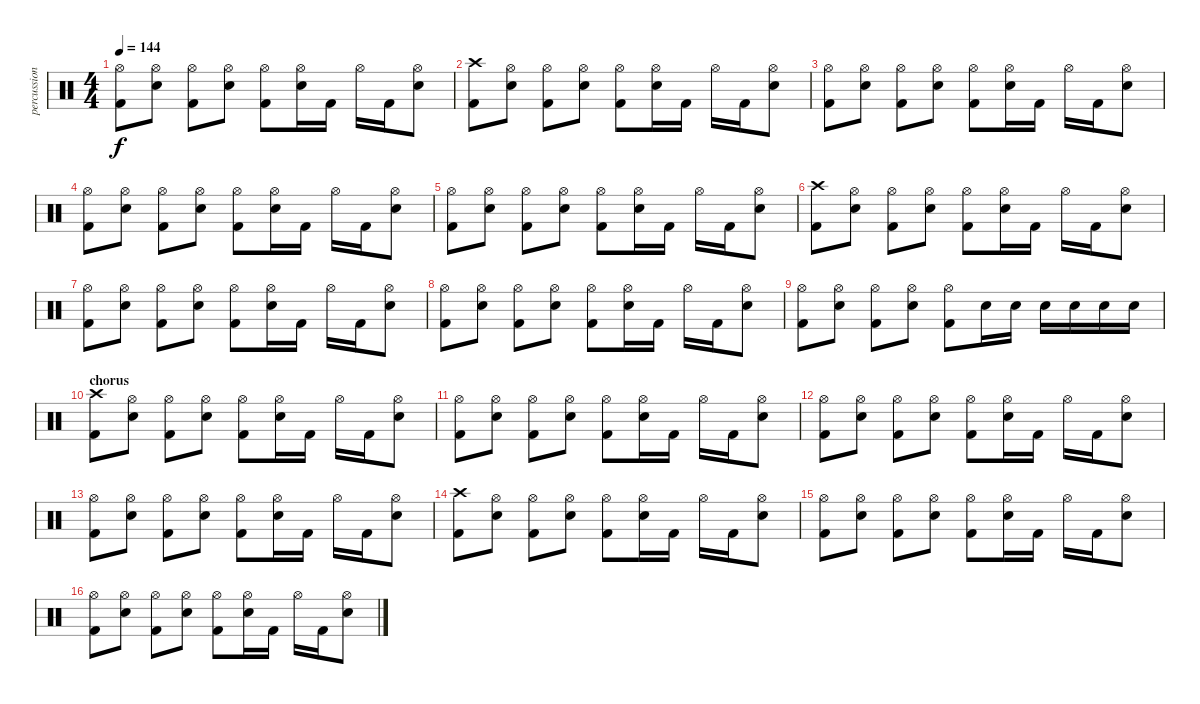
\track ("percussion" "percussion") {instrument percussion}
\staff {score}
\articulation defaults
\ts (4 4)
\tempo 144
\clef neutral
\ks c
("Hi-Hat (open)" "Kick (hit) 2").8{dy f} ("Hi-Hat (open)" "Electric Snare (hit)").8 ("Hi-Hat (open)" "Kick (hit) 2").8 ("Hi-Hat (open)" "Electric Snare (hit)").8 ("Hi-Hat (open)" "Kick (hit) 2").8 ("Hi-Hat (open)" "Electric Snare (hit)").16 "Kick (hit) 2".16 "Hi-Hat (open)".16 "Kick (hit) 2".16 ("Hi-Hat (open)" "Electric Snare (hit)").8 |
("Crash high (hit)" "Kick (hit) 2").8 ("Hi-Hat (open)" "Electric Snare (hit)").8 ("Hi-Hat (open)" "Kick (hit) 2").8 ("Hi-Hat (open)" "Electric Snare (hit)").8 ("Hi-Hat (open)" "Kick (hit) 2").8 ("Hi-Hat (open)" "Electric Snare (hit)").16 "Kick (hit) 2".16 "Hi-Hat (open)".16 "Kick (hit) 2".16 ("Hi-Hat (open)" "Electric Snare (hit)").8 |
("Hi-Hat (open)" "Kick (hit) 2").8 ("Hi-Hat (open)" "Electric Snare (hit)").8 ("Hi-Hat (open)" "Kick (hit) 2").8 ("Hi-Hat (open)" "Electric Snare (hit)").8 ("Hi-Hat (open)" "Kick (hit) 2").8 ("Hi-Hat (open)" "Electric Snare (hit)").16 "Kick (hit) 2".16 "Hi-Hat (open)".16 "Kick (hit) 2".16 ("Hi-Hat (open)" "Electric Snare (hit)").8 |
("Hi-Hat (open)" "Kick (hit) 2").8 ("Hi-Hat (open)" "Electric Snare (hit)").8 ("Hi-Hat (open)" "Kick (hit) 2").8 ("Hi-Hat (open)" "Electric Snare (hit)").8 ("Hi-Hat (open)" "Kick (hit) 2").8 ("Hi-Hat (open)" "Electric Snare (hit)").16 "Kick (hit) 2".16 "Hi-Hat (open)".16 "Kick (hit) 2".16 ("Hi-Hat (open)" "Electric Snare (hit)").8 |
("Hi-Hat (open)" "Kick (hit) 2").8 ("Hi-Hat (open)" "Electric Snare (hit)").8 ("Hi-Hat (open)" "Kick (hit) 2").8 ("Hi-Hat (open)" "Electric Snare (hit)").8 ("Hi-Hat (open)" "Kick (hit) 2").8 ("Hi-Hat (open)" "Electric Snare (hit)").16 "Kick (hit) 2".16 "Hi-Hat (open)".16 "Kick (hit) 2".16 ("Hi-Hat (open)" "Electric Snare (hit)").8 |
("Crash high (hit)" "Kick (hit) 2").8 ("Hi-Hat (open)" "Electric Snare (hit)").8 ("Hi-Hat (open)" "Kick (hit) 2").8 ("Hi-Hat (open)" "Electric Snare (hit)").8 ("Hi-Hat (open)" "Kick (hit) 2").8 ("Hi-Hat (open)" "Electric Snare (hit)").16 "Kick (hit) 2".16 "Hi-Hat (open)".16 "Kick (hit) 2".16 ("Hi-Hat (open)" "Electric Snare (hit)").8 |
("Hi-Hat (open)" "Kick (hit) 2").8 ("Hi-Hat (open)" "Electric Snare (hit)").8 ("Hi-Hat (open)" "Kick (hit) 2").8 ("Hi-Hat (open)" "Electric Snare (hit)").8 ("Hi-Hat (open)" "Kick (hit) 2").8 ("Hi-Hat (open)" "Electric Snare (hit)").16 "Kick (hit) 2".16 "Hi-Hat (open)".16 "Kick (hit) 2".16 ("Hi-Hat (open)" "Electric Snare (hit)").8 |
("Hi-Hat (open)" "Kick (hit) 2").8 ("Hi-Hat (open)" "Electric Snare (hit)").8 ("Hi-Hat (open)" "Kick (hit) 2").8 ("Hi-Hat (open)" "Electric Snare (hit)").8 ("Hi-Hat (open)" "Kick (hit) 2").8 ("Hi-Hat (open)" "Electric Snare (hit)").16 "Kick (hit) 2".16 "Hi-Hat (open)".16 "Kick (hit) 2".16 ("Hi-Hat (open)" "Electric Snare (hit)").8 |
("Hi-Hat (open)" "Kick (hit) 2").8 ("Hi-Hat (open)" "Electric Snare (hit)").8 ("Hi-Hat (open)" "Kick (hit) 2").8 ("Hi-Hat (open)" "Electric Snare (hit)").8 ("Hi-Hat (open)" "Kick (hit) 2").8 "Electric Snare (hit)".16 "Electric Snare (hit)".16 "Electric Snare (hit)".16 "Electric Snare (hit)".16 "Electric Snare (hit)".16 "Electric Snare (hit)".16 |
\section ("" "chorus")
("Crash high (hit)" "Kick (hit) 2").8 ("Hi-Hat (open)" "Electric Snare (hit)").8 ("Hi-Hat (open)" "Kick (hit) 2").8 ("Hi-Hat (open)" "Electric Snare (hit)").8 ("Hi-Hat (open)" "Kick (hit) 2").8 ("Hi-Hat (open)" "Electric Snare (hit)").16 "Kick (hit) 2".16 "Hi-Hat (open)".16 "Kick (hit) 2".16 ("Hi-Hat (open)" "Electric Snare (hit)").8 |
("Hi-Hat (open)" "Kick (hit) 2").8 ("Hi-Hat (open)" "Electric Snare (hit)").8 ("Hi-Hat (open)" "Kick (hit) 2").8 ("Hi-Hat (open)" "Electric Snare (hit)").8 ("Hi-Hat (open)" "Kick (hit) 2").8 ("Hi-Hat (open)" "Electric Snare (hit)").16 "Kick (hit) 2".16 "Hi-Hat (open)".16 "Kick (hit) 2".16 ("Hi-Hat (open)" "Electric Snare (hit)").8 |
("Hi-Hat (open)" "Kick (hit) 2").8 ("Hi-Hat (open)" "Electric Snare (hit)").8 ("Hi-Hat (open)" "Kick (hit) 2").8 ("Hi-Hat (open)" "Electric Snare (hit)").8 ("Hi-Hat (open)" "Kick (hit) 2").8 ("Hi-Hat (open)" "Electric Snare (hit)").16 "Kick (hit) 2".16 "Hi-Hat (open)".16 "Kick (hit) 2".16 ("Hi-Hat (open)" "Electric Snare (hit)").8 |
("Hi-Hat (open)" "Kick (hit) 2").8 ("Hi-Hat (open)" "Electric Snare (hit)").8 ("Hi-Hat (open)" "Kick (hit) 2").8 ("Hi-Hat (open)" "Electric Snare (hit)").8 ("Hi-Hat (open)" "Kick (hit) 2").8 ("Hi-Hat (open)" "Electric Snare (hit)").16 "Kick (hit) 2".16 "Hi-Hat (open)".16 "Kick (hit) 2".16 ("Hi-Hat (open)" "Electric Snare (hit)").8 |
("Crash high (hit)" "Kick (hit) 2").8 ("Hi-Hat (open)" "Electric Snare (hit)").8 ("Hi-Hat (open)" "Kick (hit) 2").8 ("Hi-Hat (open)" "Electric Snare (hit)").8 ("Hi-Hat (open)" "Kick (hit) 2").8 ("Hi-Hat (open)" "Electric Snare (hit)").16 "Kick (hit) 2".16 "Hi-Hat (open)".16 "Kick (hit) 2".16 ("Hi-Hat (open)" "Electric Snare (hit)").8 |
("Hi-Hat (open)" "Kick (hit) 2").8 ("Hi-Hat (open)" "Electric Snare (hit)").8 ("Hi-Hat (open)" "Kick (hit) 2").8 ("Hi-Hat (open)" "Electric Snare (hit)").8 ("Hi-Hat (open)" "Kick (hit) 2").8 ("Hi-Hat (open)" "Electric Snare (hit)").16 "Kick (hit) 2".16 "Hi-Hat (open)".16 "Kick (hit) 2".16 ("Hi-Hat (open)" "Electric Snare (hit)").8 |
("Hi-Hat (open)" "Kick (hit) 2").8 ("Hi-Hat (open)" "Electric Snare (hit)").8 ("Hi-Hat (open)" "Kick (hit) 2").8 ("Hi-Hat (open)" "Electric Snare (hit)").8 ("Hi-Hat (open)" "Kick (hit) 2").8 ("Hi-Hat (open)" "Electric Snare (hit)").16 "Kick (hit) 2".16 "Hi-Hat (open)".16 "Kick (hit) 2".16 ("Hi-Hat (open)" "Electric Snare (hit)").8
